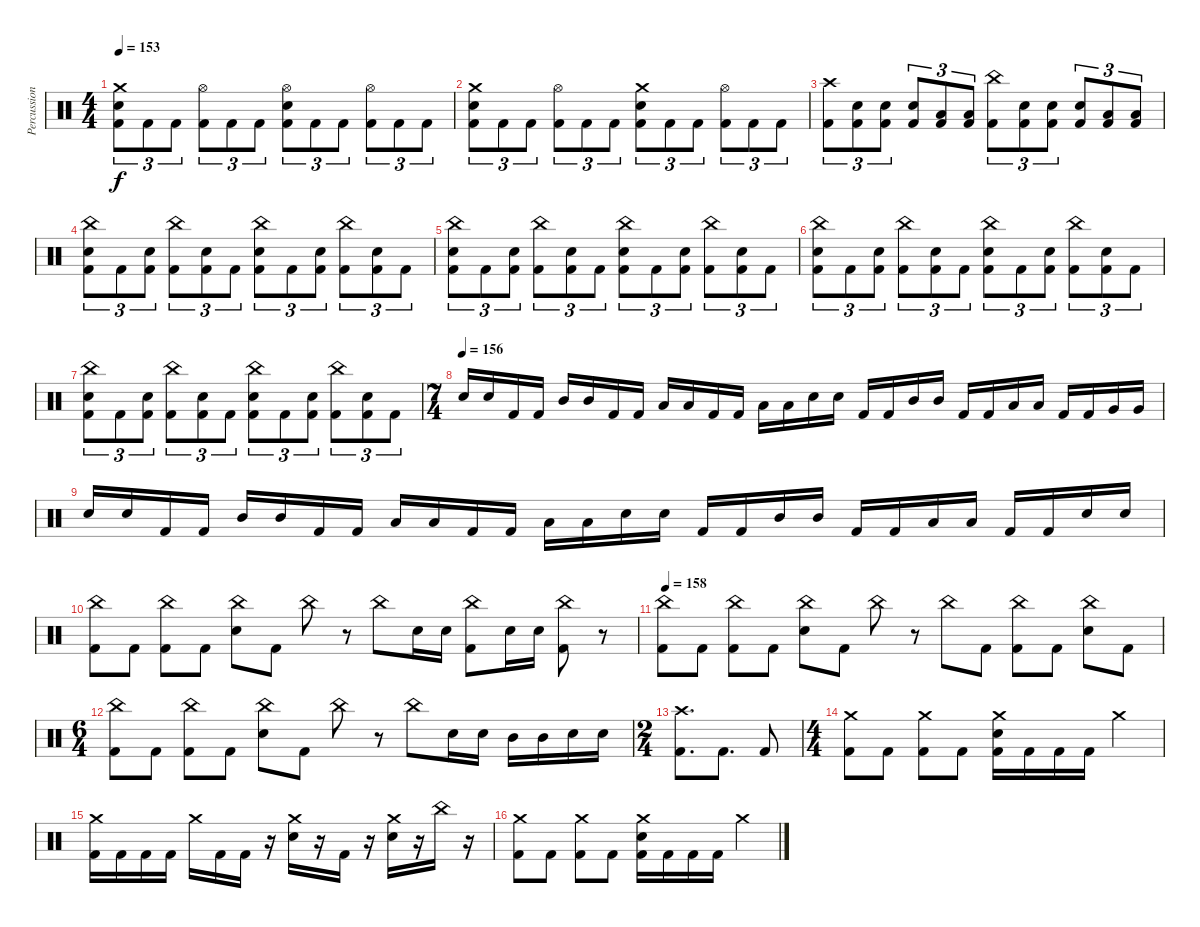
\track ("Percussion" "Percussion") {instrument percussion}
\staff {score}
\articulation defaults
\ts (4 4)
\tempo 153
\clef neutral
\ks c
("Crash medium (hit)" "Snare (hit) 2" "Kick (hit) 2").8{tu (3 2) dy f} "Kick (hit) 2".8{tu (3 2)} "Kick (hit) 2".8{tu (3 2)} ("Hi-Hat (open)" "Kick (hit) 2").8{tu (3 2)} "Kick (hit) 2".8{tu (3 2)} "Kick (hit) 2".8{tu (3 2)} ("Hi-Hat (open)" "Snare (hit) 2" "Kick (hit) 2").8{tu (3 2)} "Kick (hit) 2".8{tu (3 2)} "Kick (hit) 2".8{tu (3 2)} ("Hi-Hat (open)" "Kick (hit) 2").8{tu (3 2)} "Kick (hit) 2".8{tu (3 2)} "Kick (hit) 2".8{tu (3 2)} |
("Crash medium (hit)" "Snare (hit) 2" "Kick (hit) 2").8{tu (3 2)} "Kick (hit) 2".8{tu (3 2)} "Kick (hit) 2".8{tu (3 2)} ("Hi-Hat (open)" "Kick (hit) 2").8{tu (3 2)} "Kick (hit) 2".8{tu (3 2)} "Kick (hit) 2".8{tu (3 2)} ("Crash medium (hit)" "Snare (hit) 2" "Kick (hit) 2").8{tu (3 2)} "Kick (hit) 2".8{tu (3 2)} "Kick (hit) 2".8{tu (3 2)} ("Hi-Hat (open)" "Kick (hit) 2").8{tu (3 2)} "Kick (hit) 2".8{tu (3 2)} "Kick (hit) 2".8{tu (3 2)} |
("Crash high (hit)" "Kick (hit) 2").8{tu (3 2)} ("Snare (hit) 2" "Kick (hit) 2").8{tu (3 2)} ("Snare (hit) 2" "Kick (hit) 2").8{tu (3 2)} ("Snare (hit) 2" "Kick (hit) 2").8{tu (3 2)} ("Low Tom (hit)" "Kick (hit) 2").8{tu (3 2)} ("Low Tom (hit)" "Kick (hit) 2").8{tu (3 2)} ("China (hit)" "Kick (hit) 2").8{tu (3 2)} ("Snare (hit) 2" "Kick (hit) 2").8{tu (3 2)} ("Snare (hit) 2" "Kick (hit) 2").8{tu (3 2)} ("Snare (hit) 2" "Kick (hit) 2").8{tu (3 2)} ("Low Tom (hit)" "Kick (hit) 2").8{tu (3 2)} ("Low Tom (hit)" "Kick (hit) 2").8{tu (3 2)} |
("China (hit)" "Snare (hit) 2" "Kick (hit) 2").8{tu (3 2)} "Kick (hit) 2".8{tu (3 2)} ("Snare (hit) 2" "Kick (hit) 2").8{tu (3 2)} ("China (hit)" "Kick (hit) 2").8{tu (3 2)} ("Snare (hit) 2" "Kick (hit) 2").8{tu (3 2)} "Kick (hit) 2".8{tu (3 2)} ("China (hit)" "Snare (hit) 2" "Kick (hit) 2").8{tu (3 2)} "Kick (hit) 2".8{tu (3 2)} ("Snare (hit) 2" "Kick (hit) 2").8{tu (3 2)} ("China (hit)" "Kick (hit) 2").8{tu (3 2)} ("Snare (hit) 2" "Kick (hit) 2").8{tu (3 2)} "Kick (hit) 2".8{tu (3 2)} |
("China (hit)" "Snare (hit) 2" "Kick (hit) 2").8{tu (3 2)} "Kick (hit) 2".8{tu (3 2)} ("Snare (hit) 2" "Kick (hit) 2").8{tu (3 2)} ("China (hit)" "Kick (hit) 2").8{tu (3 2)} ("Snare (hit) 2" "Kick (hit) 2").8{tu (3 2)} "Kick (hit) 2".8{tu (3 2)} ("China (hit)" "Snare (hit) 2" "Kick (hit) 2").8{tu (3 2)} "Kick (hit) 2".8{tu (3 2)} ("Snare (hit) 2" "Kick (hit) 2").8{tu (3 2)} ("China (hit)" "Kick (hit) 2").8{tu (3 2)} ("Snare (hit) 2" "Kick (hit) 2").8{tu (3 2)} "Kick (hit) 2".8{tu (3 2)} |
("China (hit)" "Snare (hit) 2" "Kick (hit) 2").8{tu (3 2)} "Kick (hit) 2".8{tu (3 2)} ("Snare (hit) 2" "Kick (hit) 2").8{tu (3 2)} ("China (hit)" "Kick (hit) 2").8{tu (3 2)} ("Snare (hit) 2" "Kick (hit) 2").8{tu (3 2)} "Kick (hit) 2".8{tu (3 2)} ("China (hit)" "Snare (hit) 2" "Kick (hit) 2").8{tu (3 2)} "Kick (hit) 2".8{tu (3 2)} ("Snare (hit) 2" "Kick (hit) 2").8{tu (3 2)} ("China (hit)" "Kick (hit) 2").8{tu (3 2)} ("Snare (hit) 2" "Kick (hit) 2").8{tu (3 2)} "Kick (hit) 2".8{tu (3 2)} |
("China (hit)" "Snare (hit) 2" "Kick (hit) 2").8{tu (3 2)} "Kick (hit) 2".8{tu (3 2)} ("Snare (hit) 2" "Kick (hit) 2").8{tu (3 2)} ("China (hit)" "Kick (hit) 2").8{tu (3 2)} ("Snare (hit) 2" "Kick (hit) 2").8{tu (3 2)} "Kick (hit) 2".8{tu (3 2)} ("China (hit)" "Snare (hit) 2" "Kick (hit) 2").8{tu (3 2)} "Kick (hit) 2".8{tu (3 2)} ("Snare (hit) 2" "Kick (hit) 2").8{tu (3 2)} ("China (hit)" "Kick (hit) 2").8{tu (3 2)} ("Snare (hit) 2" "Kick (hit) 2").8{tu (3 2)} "Kick (hit) 2".8{tu (3 2)} |
\ts (7 4)
\tempo (156)
"Snare (hit) 2".16 "Snare (hit) 2".16 "Kick (hit) 2".16 "Kick (hit) 2".16 "Mid Tom (hit)".16 "Mid Tom (hit)".16 "Kick (hit) 2".16 "Kick (hit) 2".16 "Low Tom (hit)".16 "Low Tom (hit)".16 "Kick (hit) 2".16 "Kick (hit) 2".16 "Low Tom (hit)".16 "Low Tom (hit)".16 "Snare (hit) 2".16 "Snare (hit) 2".16 "Kick (hit) 2".16 "Kick (hit) 2".16 "Mid Tom (hit)".16 "Mid Tom (hit)".16 "Kick (hit) 2".16 "Kick (hit) 2".16 "Low Tom (hit)".16 "Low Tom (hit)".16 "Kick (hit) 2".16 "Kick (hit) 2".16 "Very Low Tom (hit)".16 "Very Low Tom (hit)".16 |
"Snare (hit) 2".16 "Snare (hit) 2".16 "Kick (hit) 2".16 "Kick (hit) 2".16 "Mid Tom (hit)".16 "Mid Tom (hit)".16 "Kick (hit) 2".16 "Kick (hit) 2".16 "Low Tom (hit)".16 "Low Tom (hit)".16 "Kick (hit) 2".16 "Kick (hit) 2".16 "Low Tom (hit)".16 "Low Tom (hit)".16 "Snare (hit) 2".16 "Snare (hit) 2".16 "Kick (hit) 2".16 "Kick (hit) 2".16 "Mid Tom (hit)".16 "Mid Tom (hit)".16 "Kick (hit) 2".16 "Kick (hit) 2".16 "Low Tom (hit)".16 "Low Tom (hit)".16 "Kick (hit) 2".16 "Kick (hit) 2".16 "Snare (hit) 2".16 "Snare (hit) 2".16 |
("China (hit)" "Kick (hit) 2").8 "Kick (hit) 2".8 ("China (hit)" "Kick (hit) 2").8 "Kick (hit) 2".8 ("China (hit)" "Snare (hit) 2").8 "Kick (hit) 2".8 "China (hit)".8 r.8 "China (hit)".8 "Snare (hit) 2".16 "Snare (hit) 2".16 ("China (hit)" "Kick (hit) 2").8 "Snare (hit) 2".16 "Snare (hit) 2".16 ("China (hit)" "Kick (hit) 2").8 r.8 |
\tempo 158
("China (hit)" "Kick (hit) 2").8 "Kick (hit) 2".8 ("China (hit)" "Kick (hit) 2").8 "Kick (hit) 2".8 ("China (hit)" "Snare (hit) 2").8 "Kick (hit) 2".8 "China (hit)".8 r.8 "China (hit)".8 "Kick (hit) 2".8 ("China (hit)" "Kick (hit) 2").8 "Kick (hit) 2".8 ("China (hit)" "Snare (hit) 2").8 "Kick (hit) 2".8 |
\ts (6 4)
("China (hit)" "Kick (hit) 2").8 "Kick (hit) 2".8 ("China (hit)" "Kick (hit) 2").8 "Kick (hit) 2".8 ("China (hit)" "Snare (hit) 2").8 "Kick (hit) 2".8 "China (hit)".8 r.8 "China (hit)".8 "Snare (hit) 2".16 "Snare (hit) 2".16 "Mid Tom (hit)".16 "Mid Tom (hit)".16 "Snare (hit) 2".16 "Snare (hit) 2".16 |
\ts (2 4)
("Crash high (hit)" "Kick (hit) 2").8{d} "Kick (hit) 2".8{d} "Kick (hit) 2".8 |
\ts (4 4)
("Crash medium (hit)" "Kick (hit) 2").8 "Kick (hit) 2".8 ("Crash medium (hit)" "Kick (hit) 2").8 "Kick (hit) 2".8 ("Crash medium (hit)" "Snare (hit) 2" "Kick (hit) 2").16 "Kick (hit) 2".16 "Kick (hit) 2".16 "Kick (hit) 2".16 "Crash medium (hit)".4 |
("Crash medium (hit)" "Kick (hit) 2").16 "Kick (hit) 2".16 "Kick (hit) 2".16 "Kick (hit) 2".16 "Crash medium (hit)".16 "Kick (hit) 2".16 "Kick (hit) 2".16 r.16 ("Crash medium (hit)" "Snare (hit) 2").16 r.16 "Kick (hit) 2".16 r.16 ("Crash medium (hit)" "Snare (hit) 2").16 r.16 "China (hit)".16 r.16 |
("Crash medium (hit)" "Kick (hit) 2").8 "Kick (hit) 2".8 ("Crash medium (hit)" "Kick (hit) 2").8 "Kick (hit) 2".8 ("Crash medium (hit)" "Snare (hit) 2" "Kick (hit) 2").16 "Kick (hit) 2".16 "Kick (hit) 2".16 "Kick (hit) 2".16 "Crash medium (hit)".4
